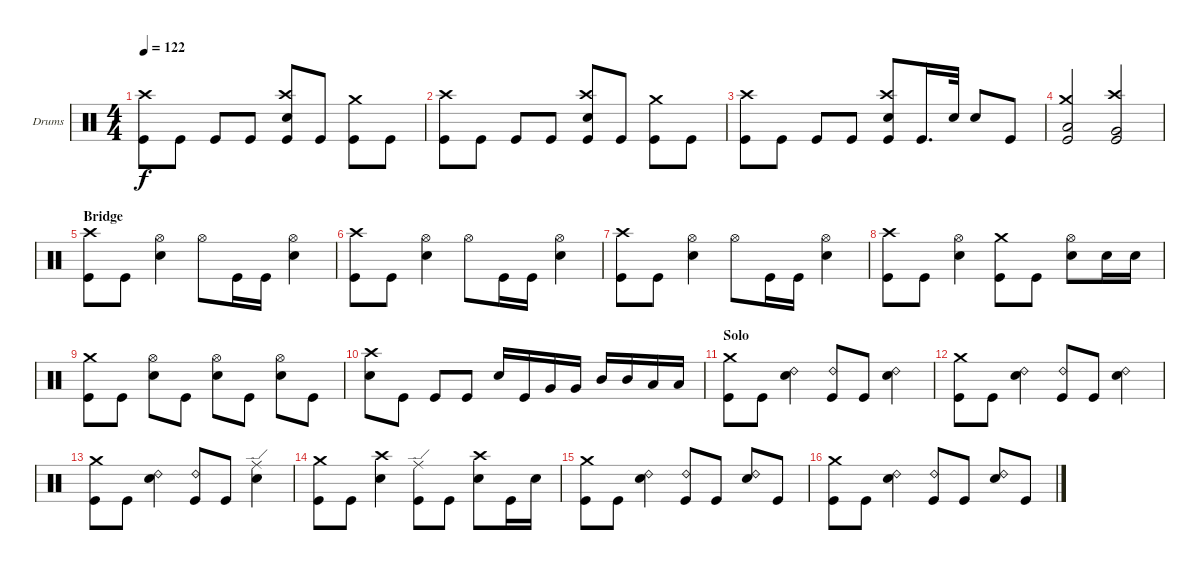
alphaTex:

\bracketExtendMode groupsimilarinstruments
\firstSystemTrackNameOrientation horizontal
\otherSystemsTrackNameOrientation horizontal
\track ("Brent Fitz" "Drums") {instrument percussion}
\staff {score}
\articulation defaults
\ts (4 4)
\tempo 122
\clef neutral
\ks c
("Kick (hit)" "Crash high (hit)").8{dy f} "Kick (hit)".8 "Kick (hit)".8 "Kick (hit)".8 ("Snare (hit) 2" "Crash high (hit)" "Kick (hit)").8 "Kick (hit)".8 ("Kick (hit)" "Crash medium (hit)").8 "Kick (hit)".8 |
("Kick (hit)" "Crash high (hit)").8 "Kick (hit)".8 "Kick (hit)".8 "Kick (hit)".8 ("Snare (hit) 2" "Crash high (hit)" "Kick (hit)").8 "Kick (hit)".8 ("Kick (hit)" "Crash medium (hit)").8 "Kick (hit)".8 |
("Kick (hit)" "Crash high (hit)").8 "Kick (hit)".8 "Kick (hit)".8 "Kick (hit)".8 ("Snare (hit) 2" "Crash high (hit)" "Kick (hit)").8 "Kick (hit)".16{d} "Snare (hit) 2".32 "Snare (hit) 2".8 "Kick (hit)".8 |
("Low Tom (hit)" "Crash medium (hit)" "Kick (hit)").2 ("Very Low Tom (hit)" "Kick (hit)" "Crash high (hit)").2 |
\section ("" "Bridge")
("Kick (hit)" "Crash high (hit)").8 "Kick (hit)".8 ("Snare (hit) 2" "Hi-Hat (open)").4 "Hi-Hat (open)".8 "Kick (hit)".16 "Kick (hit)".16 ("Snare (hit) 2" "Hi-Hat (open)").4 |
("Kick (hit)" "Crash high (hit)").8 "Kick (hit)".8 ("Snare (hit) 2" "Hi-Hat (open)").4 "Hi-Hat (open)".8 "Kick (hit)".16 "Kick (hit)".16 ("Snare (hit) 2" "Hi-Hat (open)").4 |
("Kick (hit)" "Crash high (hit)").8 "Kick (hit)".8 ("Snare (hit) 2" "Hi-Hat (open)").4 "Hi-Hat (open)".8 "Kick (hit)".16 "Kick (hit)".16 ("Snare (hit) 2" "Hi-Hat (open)").4 |
("Kick (hit)" "Crash high (hit)").8 "Kick (hit)".8 ("Snare (hit) 2" "Hi-Hat (open)").4 ("Kick (hit)" "Crash medium (hit)").8 "Kick (hit)".8 ("Snare (hit) 2" "Hi-Hat (open)").8 "Snare (hit) 2".16 "Snare (hit) 2".16 |
("Kick (hit)" "Crash medium (hit)").8 "Kick (hit)".8 ("Snare (hit) 2" "Hi-Hat (open)").8 "Kick (hit)".8 ("Snare (hit) 2" "Hi-Hat (open)").8 "Kick (hit)".8 ("Snare (hit) 2" "Hi-Hat (open)").8 "Kick (hit)".8 |
("Snare (hit) 2" "Crash high (hit)").8 "Kick (hit)".8 "Kick (hit)".8 "Kick (hit)".8 "Snare (hit) 2".16 "Kick (hit)".16 "Very Low Tom (hit)".16 "Very Low Tom (hit)".16 "Mid Tom (hit)".16 "Mid Tom (hit)".16 "Low Tom (hit)".16 "Low Tom (hit)".16 |
\section ("" "Solo")
("Kick (hit)" "Crash medium (hit)").8 "Kick (hit)".8 ("Snare (hit) 2" "Ride (bell) 2").4 ("Kick (hit)" "Ride (bell) 2").8 "Kick (hit)".8 ("Snare (hit) 2" "Ride (bell) 2").4 |
("Kick (hit)" "Crash medium (hit)").8 "Kick (hit)".8 ("Snare (hit) 2" "Ride (bell) 2").4 ("Kick (hit)" "Ride (bell) 2").8 "Kick (hit)".8 ("Snare (hit) 2" "Ride (bell) 2").4 |
("Kick (hit)" "Crash medium (hit)").8 "Kick (hit)".8 ("Snare (hit) 2" "Ride (bell) 2").4 ("Kick (hit)" "Ride (bell) 2").8 "Kick (hit)".8 ("Snare (hit) 2" "Ride (edge)").4 |
("Kick (hit)" "Crash medium (hit)").8 "Kick (hit)".8 ("Snare (hit) 2" "Crash high (hit)").4 ("Kick (hit)" "Ride (edge)").8 "Kick (hit)".8 ("Snare (hit) 2" "Crash high (hit)").8 "Kick (hit)".16 "Snare (hit) 2".16 |
("Kick (hit)" "Crash medium (hit)").8 "Kick (hit)".8 ("Snare (hit) 2" "Ride (bell) 2").4 ("Kick (hit)" "Ride (bell) 2").8 "Kick (hit)".8 ("Snare (hit) 2" "Ride (bell) 2").8 "Kick (hit)".8 |
("Kick (hit)" "Crash medium (hit)").8 "Kick (hit)".8 ("Snare (hit) 2" "Ride (bell) 2").4 ("Kick (hit)" "Ride (bell) 2").8 "Kick (hit)".8 ("Snare (hit) 2" "Ride (bell) 2").8 "Kick (hit)".8
